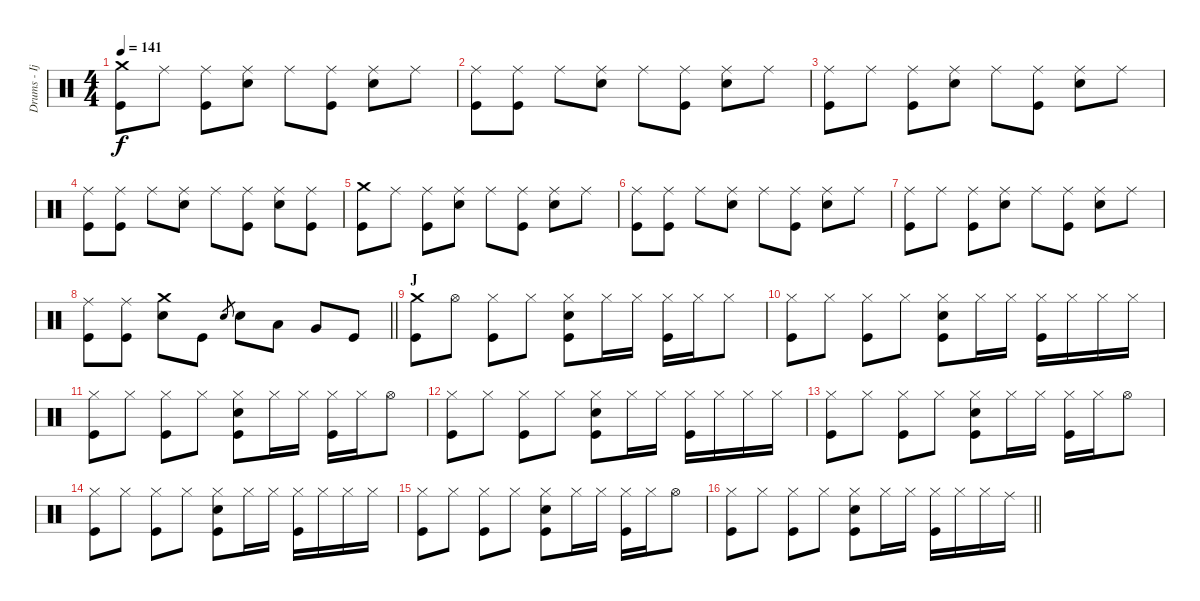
\track ("Drums - Ijichi" "Drums - Ij") {instrument percussion}
\staff {score}
\articulation defaults
\ts (4 4)
\tempo 141
\clef neutral
\ks c
("Crash medium (hit)" "Kick (hit)").8{dy f} "Ride (middle)".8 ("Ride (middle)" "Kick (hit)").8 ("Ride (middle)" "Electric Snare (hit)").8 "Ride (middle)".8 ("Ride (middle)" "Kick (hit)").8 ("Ride (middle)" "Electric Snare (hit)").8 "Ride (middle)".8 |
("Ride (middle)" "Kick (hit)").8 ("Ride (middle)" "Kick (hit)").8 "Ride (middle)".8 ("Ride (middle)" "Electric Snare (hit)").8 "Ride (middle)".8 ("Ride (middle)" "Kick (hit)").8 ("Ride (middle)" "Electric Snare (hit)").8 "Ride (middle)".8 |
("Ride (middle)" "Kick (hit)").8 "Ride (middle)".8 ("Ride (middle)" "Kick (hit)").8 ("Ride (middle)" "Electric Snare (hit)").8 "Ride (middle)".8 ("Ride (middle)" "Kick (hit)").8 ("Ride (middle)" "Electric Snare (hit)").8 "Ride (middle)".8 |
("Ride (middle)" "Kick (hit)").8 ("Ride (middle)" "Kick (hit)").8 "Ride (middle)".8 ("Ride (middle)" "Electric Snare (hit)").8 "Ride (middle)".8 ("Ride (middle)" "Kick (hit)").8 ("Ride (middle)" "Electric Snare (hit)").8 ("Ride (middle)" "Kick (hit)").8 |
("Crash medium (hit)" "Kick (hit)").8 "Ride (middle)".8 ("Ride (middle)" "Kick (hit)").8 ("Ride (middle)" "Electric Snare (hit)").8 "Ride (middle)".8 ("Ride (middle)" "Kick (hit)").8 ("Ride (middle)" "Electric Snare (hit)").8 "Ride (middle)".8 |
("Ride (middle)" "Kick (hit)").8 ("Ride (middle)" "Kick (hit)").8 "Ride (middle)".8 ("Ride (middle)" "Electric Snare (hit)").8 "Ride (middle)".8 ("Ride (middle)" "Kick (hit)").8 ("Ride (middle)" "Electric Snare (hit)").8 "Ride (middle)".8 |
("Ride (middle)" "Kick (hit)").8 "Ride (middle)".8 ("Ride (middle)" "Kick (hit)").8 ("Ride (middle)" "Electric Snare (hit)").8 "Ride (middle)".8 ("Ride (middle)" "Kick (hit)").8 ("Ride (middle)" "Electric Snare (hit)").8 "Ride (middle)".8 |
\barLineRight lightlight
("Ride (middle)" "Kick (hit)").8 ("Ride (middle)" "Kick (hit)").8 ("Crash medium (hit)" "Electric Snare (hit)").8 "Kick (hit)".8 "Electric Snare (hit)".8{gr} "Electric Snare (hit)".8 "Low Tom (hit)".8 "Very Low Tom (hit)".8 "Kick (hit)".8 |
\section ("" "J")
("Crash medium (hit)" "Kick (hit)").8 "Hi-Hat (open)".8 ("Hi-Hat (closed)" "Kick (hit)").8 "Hi-Hat (closed)".8 ("Hi-Hat (closed)" "Electric Snare (hit)" "Kick (hit)").8 "Hi-Hat (closed)".16 "Hi-Hat (closed)".16 ("Hi-Hat (closed)" "Kick (hit)").16 "Hi-Hat (closed)".16 "Hi-Hat (closed)".8 |
("Hi-Hat (closed)" "Kick (hit)").8 "Hi-Hat (closed)".8 ("Hi-Hat (closed)" "Kick (hit)").8 "Hi-Hat (closed)".8 ("Hi-Hat (closed)" "Electric Snare (hit)" "Kick (hit)").8 "Hi-Hat (closed)".16 "Hi-Hat (closed)".16 ("Hi-Hat (closed)" "Kick (hit)").16 "Hi-Hat (closed)".16 "Hi-Hat (closed)".16 "Hi-Hat (closed)".16 |
("Hi-Hat (closed)" "Kick (hit)").8 "Hi-Hat (closed)".8 ("Hi-Hat (closed)" "Kick (hit)").8 "Hi-Hat (closed)".8 ("Hi-Hat (closed)" "Electric Snare (hit)" "Kick (hit)").8 "Hi-Hat (closed)".16 "Hi-Hat (closed)".16 ("Hi-Hat (closed)" "Kick (hit)").16 "Hi-Hat (closed)".16 "Hi-Hat (open)".8 |
("Hi-Hat (closed)" "Kick (hit)").8 "Hi-Hat (closed)".8 ("Hi-Hat (closed)" "Kick (hit)").8 "Hi-Hat (closed)".8 ("Hi-Hat (closed)" "Electric Snare (hit)" "Kick (hit)").8 "Hi-Hat (closed)".16 "Hi-Hat (closed)".16 ("Hi-Hat (closed)" "Kick (hit)").16 "Hi-Hat (closed)".16 "Hi-Hat (closed)".16 "Hi-Hat (closed)".16 |
("Hi-Hat (closed)" "Kick (hit)").8 "Hi-Hat (closed)".8 ("Hi-Hat (closed)" "Kick (hit)").8 "Hi-Hat (closed)".8 ("Hi-Hat (closed)" "Electric Snare (hit)" "Kick (hit)").8 "Hi-Hat (closed)".16 "Hi-Hat (closed)".16 ("Hi-Hat (closed)" "Kick (hit)").16 "Hi-Hat (closed)".16 "Hi-Hat (open)".8 |
("Hi-Hat (closed)" "Kick (hit)").8 "Hi-Hat (closed)".8 ("Hi-Hat (closed)" "Kick (hit)").8 "Hi-Hat (closed)".8 ("Hi-Hat (closed)" "Electric Snare (hit)" "Kick (hit)").8 "Hi-Hat (closed)".16 "Hi-Hat (closed)".16 ("Hi-Hat (closed)" "Kick (hit)").16 "Hi-Hat (closed)".16 "Hi-Hat (closed)".16 "Hi-Hat (closed)".16 |
("Hi-Hat (closed)" "Kick (hit)").8 "Hi-Hat (closed)".8 ("Hi-Hat (closed)" "Kick (hit)").8 "Hi-Hat (closed)".8 ("Hi-Hat (closed)" "Electric Snare (hit)" "Kick (hit)").8 "Hi-Hat (closed)".16 "Hi-Hat (closed)".16 ("Hi-Hat (closed)" "Kick (hit)").16 "Hi-Hat (closed)".16 "Hi-Hat (open)".8 |
\barLineRight lightlight
("Hi-Hat (closed)" "Kick (hit)").8 "Hi-Hat (closed)".8 ("Hi-Hat (closed)" "Kick (hit)").8 "Hi-Hat (closed)".8 ("Hi-Hat (closed)" "Electric Snare (hit)" "Kick (hit)").8 "Hi-Hat (closed)".16 "Hi-Hat (closed)".16 ("Hi-Hat (closed)" "Kick (hit)").16 "Hi-Hat (closed)".16 "Hi-Hat (closed)".16 "Ride (middle)".16
